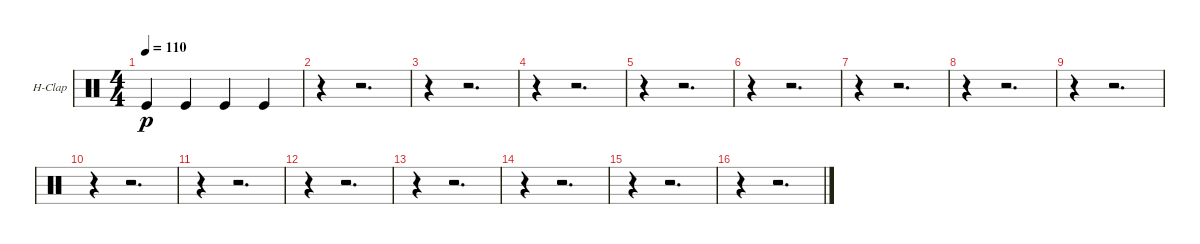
\bracketExtendMode groupsimilarinstruments
\firstSystemTrackNameOrientation horizontal
\otherSystemsTrackNameOrientation horizontal
\track ("Hand Clap" "H-Clap") {instrument percussion}
\staff {score}
\articulation defaults
\ts (4 4)
\tempo 110
\clef neutral
\ks c "Kick (hit)".4{dy p} "Kick (hit)".4 "Kick (hit)".4 "Kick (hit)".4
|
r.4 r.2{d} |
r.4 r.2{d} |
r.4 r.2{d} |
r.4 r.2{d} |
r.4 r.2{d} |
r.4 r.2{d} |
r.4 r.2{d} |
r.4 r.2{d} |
r.4 r.2{d} |
r.4 r.2{d} |
r.4 r.2{d} |
r.4 r.2{d} |
r.4 r.2{d} |
r.4 r.2{d} |
r.4 r.2{d}
